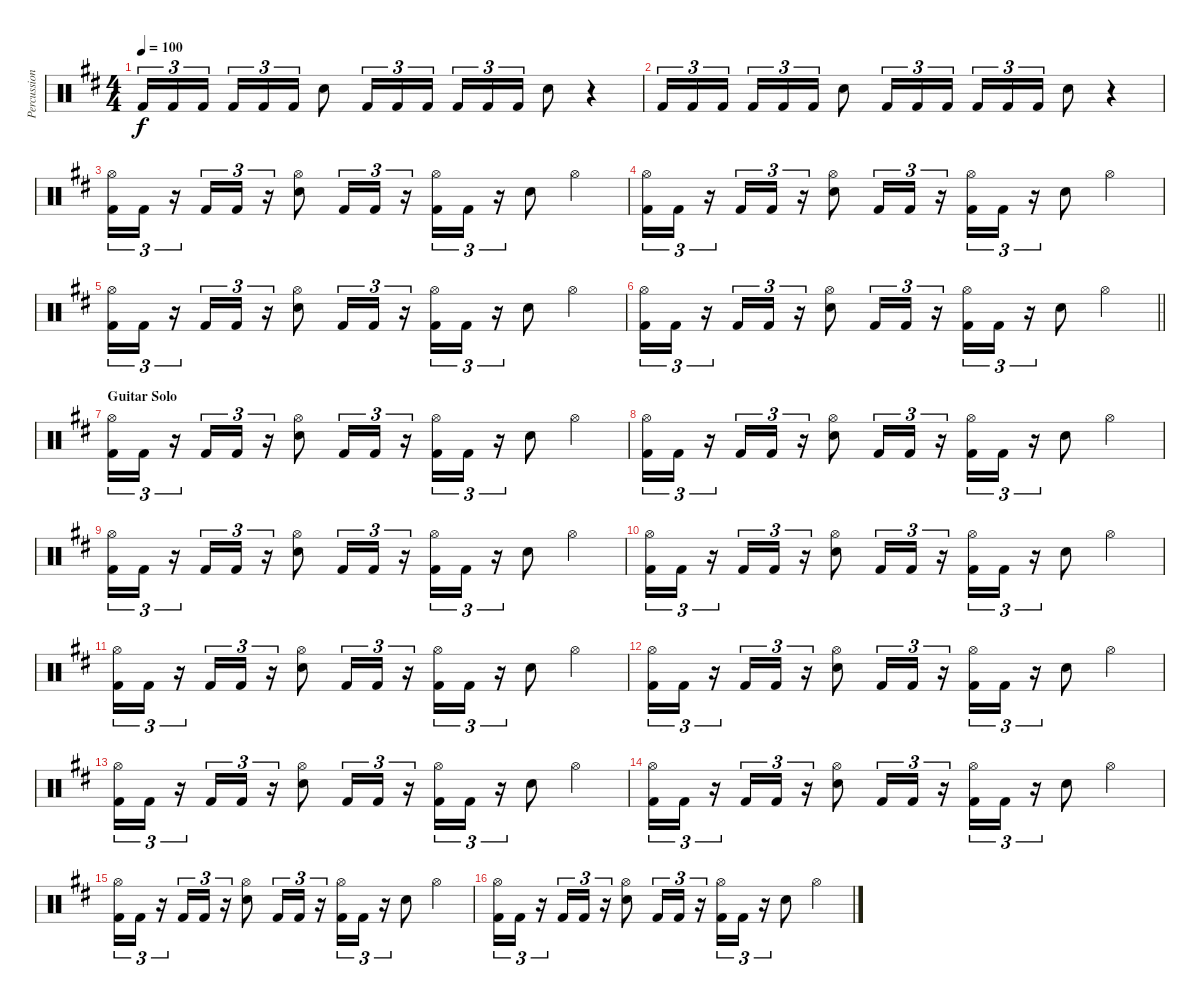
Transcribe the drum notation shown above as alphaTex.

\track ("Percussion" "Percussion") {instrument percussion}
\staff {score}
\articulation defaults
\ts (4 4)
\tempo 100
\clef neutral
\ks d "Kick (hit) 2".16{tu (3 2) dy f} "Kick (hit) 2".16{tu (3 2)} "Kick (hit) 2".16{tu (3 2) beam splitsecondary} "Kick (hit) 2".16{tu (3 2)} "Kick (hit) 2".16{tu (3 2)} "Kick (hit) 2".16{tu (3 2)} "Electric Snare (hit)".8 "Kick (hit) 2".16{tu (3 2)} "Kick (hit) 2".16{tu (3 2)} "Kick (hit) 2".16{tu (3 2)} "Kick (hit) 2".16{tu (3 2)} "Kick (hit) 2".16{tu (3 2)} "Kick (hit) 2".16{tu (3 2)} "Electric Snare (hit)".8
r.4 |
"Kick (hit) 2".16{tu (3 2)} "Kick (hit) 2".16{tu (3 2)} "Kick (hit) 2".16{tu (3 2) beam splitsecondary} "Kick (hit) 2".16{tu (3 2)} "Kick (hit) 2".16{tu (3 2)} "Kick (hit) 2".16{tu (3 2)} "Electric Snare (hit)".8 "Kick (hit) 2".16{tu (3 2)} "Kick (hit) 2".16{tu (3 2)} "Kick (hit) 2".16{tu (3 2)} "Kick (hit) 2".16{tu (3 2)} "Kick (hit) 2".16{tu (3 2)} "Kick (hit) 2".16{tu (3 2)} "Electric Snare (hit)".8 r.4 |
("Hi-Hat (open)" "Kick (hit) 2").16{tu (3 2)} "Kick (hit) 2".16{tu (3 2)} r.16{tu (3 2)} "Kick (hit) 2".16{tu (3 2)} "Kick (hit) 2".16{tu (3 2)} r.16{tu (3 2)} ("Hi-Hat (open)" "Electric Snare (hit)").8 "Kick (hit) 2".16{tu (3 2)} "Kick (hit) 2".16{tu (3 2)} r.16{tu (3 2)} ("Hi-Hat (open)" "Kick (hit) 2").16{tu (3 2)} "Kick (hit) 2".16{tu (3 2)} r.16{tu (3 2)} "Electric Snare (hit)".8 "Hi-Hat (open)".4 |
("Hi-Hat (open)" "Kick (hit) 2").16{tu (3 2)} "Kick (hit) 2".16{tu (3 2)} r.16{tu (3 2)} "Kick (hit) 2".16{tu (3 2)} "Kick (hit) 2".16{tu (3 2)} r.16{tu (3 2)} ("Hi-Hat (open)" "Electric Snare (hit)").8 "Kick (hit) 2".16{tu (3 2)} "Kick (hit) 2".16{tu (3 2)} r.16{tu (3 2)} ("Hi-Hat (open)" "Kick (hit) 2").16{tu (3 2)} "Kick (hit) 2".16{tu (3 2)} r.16{tu (3 2)} "Electric Snare (hit)".8 "Hi-Hat (open)".4 |
("Hi-Hat (open)" "Kick (hit) 2").16{tu (3 2)} "Kick (hit) 2".16{tu (3 2)} r.16{tu (3 2)} "Kick (hit) 2".16{tu (3 2)} "Kick (hit) 2".16{tu (3 2)} r.16{tu (3 2)} ("Hi-Hat (open)" "Electric Snare (hit)").8 "Kick (hit) 2".16{tu (3 2)} "Kick (hit) 2".16{tu (3 2)} r.16{tu (3 2)} ("Hi-Hat (open)" "Kick (hit) 2").16{tu (3 2)} "Kick (hit) 2".16{tu (3 2)} r.16{tu (3 2)} "Electric Snare (hit)".8 "Hi-Hat (open)".4 |
\barLineRight lightlight
("Hi-Hat (open)" "Kick (hit) 2").16{tu (3 2)} "Kick (hit) 2".16{tu (3 2)} r.16{tu (3 2)} "Kick (hit) 2".16{tu (3 2)} "Kick (hit) 2".16{tu (3 2)} r.16{tu (3 2)} ("Hi-Hat (open)" "Electric Snare (hit)").8 "Kick (hit) 2".16{tu (3 2)} "Kick (hit) 2".16{tu (3 2)} r.16{tu (3 2)} ("Hi-Hat (open)" "Kick (hit) 2").16{tu (3 2)} "Kick (hit) 2".16{tu (3 2)} r.16{tu (3 2)} "Electric Snare (hit)".8 "Hi-Hat (open)".4 |
\section ("" "Guitar Solo")
("Hi-Hat (open)" "Kick (hit) 2").16{tu (3 2)} "Kick (hit) 2".16{tu (3 2)} r.16{tu (3 2)} "Kick (hit) 2".16{tu (3 2)} "Kick (hit) 2".16{tu (3 2)} r.16{tu (3 2)} ("Hi-Hat (open)" "Electric Snare (hit)").8 "Kick (hit) 2".16{tu (3 2)} "Kick (hit) 2".16{tu (3 2)} r.16{tu (3 2)} ("Hi-Hat (open)" "Kick (hit) 2").16{tu (3 2)} "Kick (hit) 2".16{tu (3 2)} r.16{tu (3 2)} "Electric Snare (hit)".8 "Hi-Hat (open)".4 |
("Hi-Hat (open)" "Kick (hit) 2").16{tu (3 2)} "Kick (hit) 2".16{tu (3 2)} r.16{tu (3 2)} "Kick (hit) 2".16{tu (3 2)} "Kick (hit) 2".16{tu (3 2)} r.16{tu (3 2)} ("Hi-Hat (open)" "Electric Snare (hit)").8 "Kick (hit) 2".16{tu (3 2)} "Kick (hit) 2".16{tu (3 2)} r.16{tu (3 2)} ("Hi-Hat (open)" "Kick (hit) 2").16{tu (3 2)} "Kick (hit) 2".16{tu (3 2)} r.16{tu (3 2)} "Electric Snare (hit)".8 "Hi-Hat (open)".4 |
("Hi-Hat (open)" "Kick (hit) 2").16{tu (3 2)} "Kick (hit) 2".16{tu (3 2)} r.16{tu (3 2)} "Kick (hit) 2".16{tu (3 2)} "Kick (hit) 2".16{tu (3 2)} r.16{tu (3 2)} ("Hi-Hat (open)" "Electric Snare (hit)").8 "Kick (hit) 2".16{tu (3 2)} "Kick (hit) 2".16{tu (3 2)} r.16{tu (3 2)} ("Hi-Hat (open)" "Kick (hit) 2").16{tu (3 2)} "Kick (hit) 2".16{tu (3 2)} r.16{tu (3 2)} "Electric Snare (hit)".8 "Hi-Hat (open)".4 |
("Hi-Hat (open)" "Kick (hit) 2").16{tu (3 2)} "Kick (hit) 2".16{tu (3 2)} r.16{tu (3 2)} "Kick (hit) 2".16{tu (3 2)} "Kick (hit) 2".16{tu (3 2)} r.16{tu (3 2)} ("Hi-Hat (open)" "Electric Snare (hit)").8 "Kick (hit) 2".16{tu (3 2)} "Kick (hit) 2".16{tu (3 2)} r.16{tu (3 2)} ("Hi-Hat (open)" "Kick (hit) 2").16{tu (3 2)} "Kick (hit) 2".16{tu (3 2)} r.16{tu (3 2)} "Electric Snare (hit)".8 "Hi-Hat (open)".4 |
("Hi-Hat (open)" "Kick (hit) 2").16{tu (3 2)} "Kick (hit) 2".16{tu (3 2)} r.16{tu (3 2)} "Kick (hit) 2".16{tu (3 2)} "Kick (hit) 2".16{tu (3 2)} r.16{tu (3 2)} ("Hi-Hat (open)" "Electric Snare (hit)").8 "Kick (hit) 2".16{tu (3 2)} "Kick (hit) 2".16{tu (3 2)} r.16{tu (3 2)} ("Hi-Hat (open)" "Kick (hit) 2").16{tu (3 2)} "Kick (hit) 2".16{tu (3 2)} r.16{tu (3 2)} "Electric Snare (hit)".8 "Hi-Hat (open)".4 |
("Hi-Hat (open)" "Kick (hit) 2").16{tu (3 2)} "Kick (hit) 2".16{tu (3 2)} r.16{tu (3 2)} "Kick (hit) 2".16{tu (3 2)} "Kick (hit) 2".16{tu (3 2)} r.16{tu (3 2)} ("Hi-Hat (open)" "Electric Snare (hit)").8 "Kick (hit) 2".16{tu (3 2)} "Kick (hit) 2".16{tu (3 2)} r.16{tu (3 2)} ("Hi-Hat (open)" "Kick (hit) 2").16{tu (3 2)} "Kick (hit) 2".16{tu (3 2)} r.16{tu (3 2)} "Electric Snare (hit)".8 "Hi-Hat (open)".4 |
("Hi-Hat (open)" "Kick (hit) 2").16{tu (3 2)} "Kick (hit) 2".16{tu (3 2)} r.16{tu (3 2)} "Kick (hit) 2".16{tu (3 2)} "Kick (hit) 2".16{tu (3 2)} r.16{tu (3 2)} ("Hi-Hat (open)" "Electric Snare (hit)").8 "Kick (hit) 2".16{tu (3 2)} "Kick (hit) 2".16{tu (3 2)} r.16{tu (3 2)} ("Hi-Hat (open)" "Kick (hit) 2").16{tu (3 2)} "Kick (hit) 2".16{tu (3 2)} r.16{tu (3 2)} "Electric Snare (hit)".8 "Hi-Hat (open)".4 |
("Hi-Hat (open)" "Kick (hit) 2").16{tu (3 2)} "Kick (hit) 2".16{tu (3 2)} r.16{tu (3 2)} "Kick (hit) 2".16{tu (3 2)} "Kick (hit) 2".16{tu (3 2)} r.16{tu (3 2)} ("Hi-Hat (open)" "Electric Snare (hit)").8 "Kick (hit) 2".16{tu (3 2)} "Kick (hit) 2".16{tu (3 2)} r.16{tu (3 2)} ("Hi-Hat (open)" "Kick (hit) 2").16{tu (3 2)} "Kick (hit) 2".16{tu (3 2)} r.16{tu (3 2)} "Electric Snare (hit)".8 "Hi-Hat (open)".4 |
("Hi-Hat (open)" "Kick (hit) 2").16{tu (3 2)} "Kick (hit) 2".16{tu (3 2)} r.16{tu (3 2)} "Kick (hit) 2".16{tu (3 2)} "Kick (hit) 2".16{tu (3 2)} r.16{tu (3 2)} ("Hi-Hat (open)" "Electric Snare (hit)").8 "Kick (hit) 2".16{tu (3 2)} "Kick (hit) 2".16{tu (3 2)} r.16{tu (3 2)} ("Hi-Hat (open)" "Kick (hit) 2").16{tu (3 2)} "Kick (hit) 2".16{tu (3 2)} r.16{tu (3 2)} "Electric Snare (hit)".8 "Hi-Hat (open)".4 |
("Hi-Hat (open)" "Kick (hit) 2").16{tu (3 2)} "Kick (hit) 2".16{tu (3 2)} r.16{tu (3 2)} "Kick (hit) 2".16{tu (3 2)} "Kick (hit) 2".16{tu (3 2)} r.16{tu (3 2)} ("Hi-Hat (open)" "Electric Snare (hit)").8 "Kick (hit) 2".16{tu (3 2)} "Kick (hit) 2".16{tu (3 2)} r.16{tu (3 2)} ("Hi-Hat (open)" "Kick (hit) 2").16{tu (3 2)} "Kick (hit) 2".16{tu (3 2)} r.16{tu (3 2)} "Electric Snare (hit)".8 "Hi-Hat (open)".4
